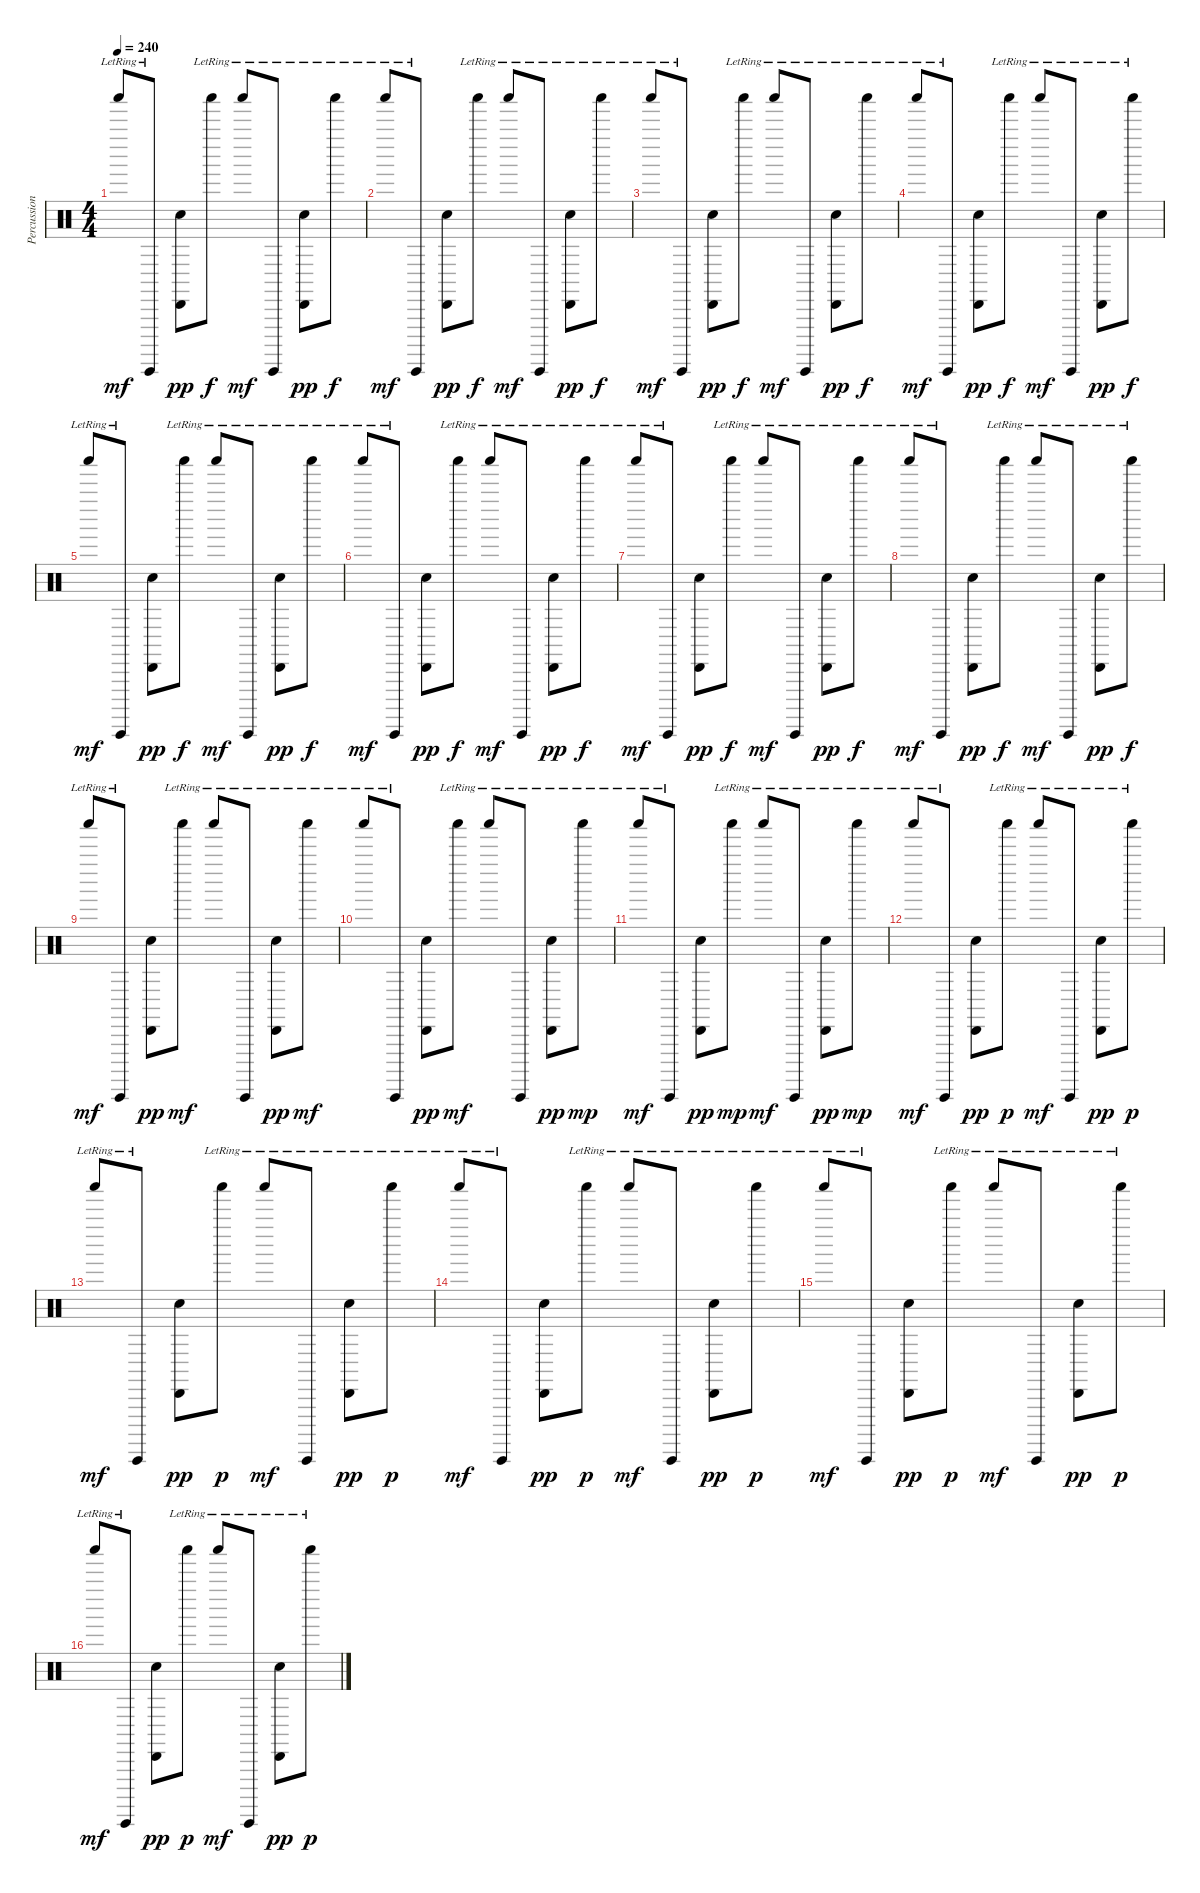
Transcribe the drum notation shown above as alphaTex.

\track ("Percussions" "Percussion") {instrument percussion}
\staff {score}
\articulation defaults
\ts (4 4)
\tempo 240
\clef neutral
\ks c "Shaker (hit)"{lr}.8{dy mf} "Guiro (hit)"{lr}.8
("Cabasa (hit)" "Snare (hit) 2").8{dy pp} "Shaker (hit)"{lr}.8{dy f} "Shaker (hit)"{lr}.8{dy mf} "Guiro (hit)"{lr}.8 ("Cabasa (hit)"{lr} "Snare (hit) 2").8{dy pp} "Shaker (hit)"{lr}.8{dy f} |
"Shaker (hit)"{lr}.8{dy mf} "Guiro (hit)"{lr}.8 ("Cabasa (hit)" "Snare (hit) 2").8{dy pp} "Shaker (hit)"{lr}.8{dy f} "Shaker (hit)"{lr}.8{dy mf} "Guiro (hit)"{lr}.8 ("Cabasa (hit)"{lr} "Snare (hit) 2").8{dy pp} "Shaker (hit)"{lr}.8{dy f} |
"Shaker (hit)"{lr}.8{dy mf} "Guiro (hit)"{lr}.8 ("Cabasa (hit)" "Snare (hit) 2").8{dy pp} "Shaker (hit)"{lr}.8{dy f} "Shaker (hit)"{lr}.8{dy mf} "Guiro (hit)"{lr}.8 ("Cabasa (hit)"{lr} "Snare (hit) 2").8{dy pp} "Shaker (hit)"{lr}.8{dy f} |
"Shaker (hit)"{lr}.8{dy mf} "Guiro (hit)"{lr}.8 ("Cabasa (hit)" "Snare (hit) 2").8{dy pp} "Shaker (hit)"{lr}.8{dy f} "Shaker (hit)"{lr}.8{dy mf} "Guiro (hit)"{lr}.8 ("Cabasa (hit)"{lr} "Snare (hit) 2").8{dy pp} "Shaker (hit)"{lr}.8{dy f} |
"Shaker (hit)"{lr}.8{dy mf} "Guiro (hit)"{lr}.8 ("Cabasa (hit)" "Snare (hit) 2").8{dy pp} "Shaker (hit)"{lr}.8{dy f} "Shaker (hit)"{lr}.8{dy mf} "Guiro (hit)"{lr}.8 ("Cabasa (hit)"{lr} "Snare (hit) 2").8{dy pp} "Shaker (hit)"{lr}.8{dy f} |
"Shaker (hit)"{lr}.8{dy mf} "Guiro (hit)"{lr}.8 ("Cabasa (hit)" "Snare (hit) 2").8{dy pp} "Shaker (hit)"{lr}.8{dy f} "Shaker (hit)"{lr}.8{dy mf} "Guiro (hit)"{lr}.8 ("Cabasa (hit)"{lr} "Snare (hit) 2").8{dy pp} "Shaker (hit)"{lr}.8{dy f} |
"Shaker (hit)"{lr}.8{dy mf} "Guiro (hit)"{lr}.8 ("Cabasa (hit)" "Snare (hit) 2").8{dy pp} "Shaker (hit)"{lr}.8{dy f} "Shaker (hit)"{lr}.8{dy mf} "Guiro (hit)"{lr}.8 ("Cabasa (hit)"{lr} "Snare (hit) 2").8{dy pp} "Shaker (hit)"{lr}.8{dy f} |
"Shaker (hit)"{lr}.8{dy mf} "Guiro (hit)"{lr}.8 ("Cabasa (hit)" "Snare (hit) 2").8{dy pp} "Shaker (hit)"{lr}.8{dy f} "Shaker (hit)"{lr}.8{dy mf} "Guiro (hit)"{lr}.8 ("Cabasa (hit)"{lr} "Snare (hit) 2").8{dy pp} "Shaker (hit)"{lr}.8{dy f} |
"Shaker (hit)"{lr}.8{dy mf} "Guiro (hit)"{lr}.8 ("Cabasa (hit)" "Snare (hit) 2").8{dy pp} "Shaker (hit)"{lr}.8{dy mf} "Shaker (hit)"{lr}.8 "Guiro (hit)"{lr}.8 ("Cabasa (hit)"{lr} "Snare (hit) 2").8{dy pp} "Shaker (hit)"{lr}.8{dy mf} |
"Shaker (hit)"{lr}.8 "Guiro (hit)"{lr}.8 ("Cabasa (hit)" "Snare (hit) 2").8{dy pp} "Shaker (hit)"{lr}.8{dy mf} "Shaker (hit)"{lr}.8 "Guiro (hit)"{lr}.8 ("Cabasa (hit)"{lr} "Snare (hit) 2").8{dy pp} "Shaker (hit)"{lr}.8{dy mp} |
"Shaker (hit)"{lr}.8{dy mf} "Guiro (hit)"{lr}.8 ("Cabasa (hit)" "Snare (hit) 2").8{dy pp} "Shaker (hit)"{lr}.8{dy mp} "Shaker (hit)"{lr}.8{dy mf} "Guiro (hit)"{lr}.8 ("Cabasa (hit)"{lr} "Snare (hit) 2").8{dy pp} "Shaker (hit)"{lr}.8{dy mp} |
"Shaker (hit)"{lr}.8{dy mf} "Guiro (hit)"{lr}.8 ("Cabasa (hit)" "Snare (hit) 2").8{dy pp} "Shaker (hit)"{lr}.8{dy p} "Shaker (hit)"{lr}.8{dy mf} "Guiro (hit)"{lr}.8 ("Cabasa (hit)"{lr} "Snare (hit) 2").8{dy pp} "Shaker (hit)"{lr}.8{dy p} |
"Shaker (hit)"{lr}.8{dy mf} "Guiro (hit)"{lr}.8 ("Cabasa (hit)" "Snare (hit) 2").8{dy pp} "Shaker (hit)"{lr}.8{dy p} "Shaker (hit)"{lr}.8{dy mf} "Guiro (hit)"{lr}.8 ("Cabasa (hit)"{lr} "Snare (hit) 2").8{dy pp} "Shaker (hit)"{lr}.8{dy p} |
"Shaker (hit)"{lr}.8{dy mf} "Guiro (hit)"{lr}.8 ("Cabasa (hit)" "Snare (hit) 2").8{dy pp} "Shaker (hit)"{lr}.8{dy p} "Shaker (hit)"{lr}.8{dy mf} "Guiro (hit)"{lr}.8 ("Cabasa (hit)"{lr} "Snare (hit) 2").8{dy pp} "Shaker (hit)"{lr}.8{dy p} |
"Shaker (hit)"{lr}.8{dy mf} "Guiro (hit)"{lr}.8 ("Cabasa (hit)" "Snare (hit) 2").8{dy pp} "Shaker (hit)"{lr}.8{dy p} "Shaker (hit)"{lr}.8{dy mf} "Guiro (hit)"{lr}.8 ("Cabasa (hit)"{lr} "Snare (hit) 2").8{dy pp} "Shaker (hit)"{lr}.8{dy p} |
"Shaker (hit)"{lr}.8{dy mf} "Guiro (hit)"{lr}.8 ("Cabasa (hit)" "Snare (hit) 2").8{dy pp} "Shaker (hit)"{lr}.8{dy p} "Shaker (hit)"{lr}.8{dy mf} "Guiro (hit)"{lr}.8 ("Cabasa (hit)"{lr} "Snare (hit) 2").8{dy pp} "Shaker (hit)"{lr}.8{dy p}
